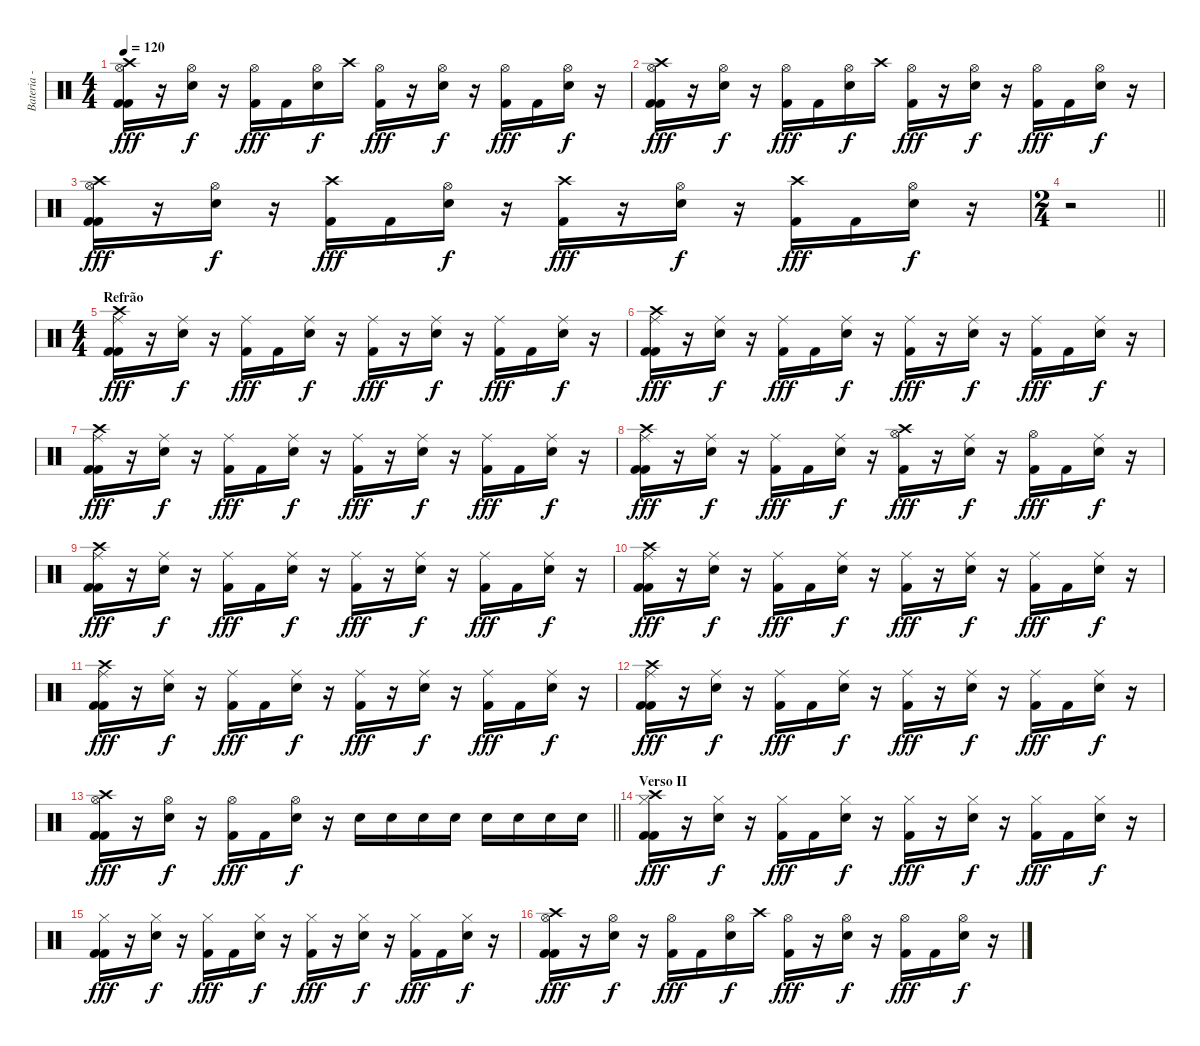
\track ("Bateria - Larzon" "Bateria - ") {instrument percussion}
\staff {score}
\articulation defaults
\ts (4 4)
\tempo 120
\clef neutral
\ks c
("Kick (hit) 2" "Kick (hit) 2" "Crash high (hit)" "Hi-Hat (open)").16{dy fff} r.16 ("Snare (hit) 2" "Hi-Hat (open)").16{dy f} r.16 ("Kick (hit) 2" "Hi-Hat (open)").16{dy fff} "Kick (hit) 2".16 ("Snare (hit) 2" "Hi-Hat (open)").16{dy f} "Crash high (hit)".16 ("Kick (hit) 2" "Hi-Hat (open)").16{dy fff} r.16 ("Snare (hit) 2" "Hi-Hat (open)").16{dy f} r.16 ("Kick (hit) 2" "Hi-Hat (open)").16{dy fff} "Kick (hit) 2".16 ("Snare (hit) 2" "Hi-Hat (open)").16{dy f} r.16 |
("Kick (hit) 2" "Kick (hit) 2" "Crash high (hit)" "Hi-Hat (open)").16{dy fff} r.16 ("Snare (hit) 2" "Hi-Hat (open)").16{dy f} r.16 ("Kick (hit) 2" "Hi-Hat (open)").16{dy fff} "Kick (hit) 2".16 ("Snare (hit) 2" "Hi-Hat (open)").16{dy f} "Crash high (hit)".16 ("Kick (hit) 2" "Hi-Hat (open)").16{dy fff} r.16 ("Snare (hit) 2" "Hi-Hat (open)").16{dy f} r.16 ("Kick (hit) 2" "Hi-Hat (open)").16{dy fff} "Kick (hit) 2".16 ("Snare (hit) 2" "Hi-Hat (open)").16{dy f} r.16 |
("Kick (hit) 2" "Kick (hit) 2" "Crash high (hit)" "Hi-Hat (open)").16{dy fff} r.16 ("Snare (hit) 2" "Hi-Hat (open)").16{dy f} r.16 ("Kick (hit) 2" "Crash high (hit)").16{dy fff} "Kick (hit) 2".16 ("Snare (hit) 2" "Hi-Hat (open)").16{dy f} r.16 ("Kick (hit) 2" "Crash high (hit)").16{dy fff} r.16 ("Snare (hit) 2" "Hi-Hat (open)").16{dy f} r.16 ("Kick (hit) 2" "Crash high (hit)").16{dy fff} "Kick (hit) 2".16 ("Snare (hit) 2" "Hi-Hat (open)").16{dy f} r.16 |
\ts (2 4)
\barLineRight lightlight
r.2 |
\ts (4 4)
\section ("" "Refrão")
("Kick (hit) 2" "Kick (hit) 2" "Crash high (hit)" "Ride (middle)").16{dy fff} r.16 ("Snare (hit) 2" "Ride (middle)").16{dy f} r.16 ("Kick (hit) 2" "Ride (middle)").16{dy fff} "Kick (hit) 2".16 ("Snare (hit) 2" "Ride (middle)").16{dy f} r.16 ("Kick (hit) 2" "Ride (middle)").16{dy fff} r.16 ("Snare (hit) 2" "Ride (middle)").16{dy f} r.16 ("Kick (hit) 2" "Ride (middle)").16{dy fff} "Kick (hit) 2".16 ("Snare (hit) 2" "Ride (middle)").16{dy f} r.16 |
("Kick (hit) 2" "Kick (hit) 2" "Crash high (hit)" "Ride (middle)").16{dy fff} r.16 ("Snare (hit) 2" "Ride (middle)").16{dy f} r.16 ("Kick (hit) 2" "Ride (middle)").16{dy fff} "Kick (hit) 2".16 ("Snare (hit) 2" "Ride (middle)").16{dy f} r.16 ("Kick (hit) 2" "Ride (middle)").16{dy fff} r.16 ("Snare (hit) 2" "Ride (middle)").16{dy f} r.16 ("Kick (hit) 2" "Ride (middle)").16{dy fff} "Kick (hit) 2".16 ("Snare (hit) 2" "Ride (middle)").16{dy f} r.16 |
("Kick (hit) 2" "Kick (hit) 2" "Crash high (hit)" "Ride (middle)").16{dy fff} r.16 ("Snare (hit) 2" "Ride (middle)").16{dy f} r.16 ("Kick (hit) 2" "Ride (middle)").16{dy fff} "Kick (hit) 2".16 ("Snare (hit) 2" "Ride (middle)").16{dy f} r.16 ("Kick (hit) 2" "Ride (middle)").16{dy fff} r.16 ("Snare (hit) 2" "Ride (middle)").16{dy f} r.16 ("Kick (hit) 2" "Ride (middle)").16{dy fff} "Kick (hit) 2".16 ("Snare (hit) 2" "Ride (middle)").16{dy f} r.16 |
("Kick (hit) 2" "Kick (hit) 2" "Crash high (hit)" "Ride (middle)").16{dy fff} r.16 ("Snare (hit) 2" "Ride (middle)").16{dy f} r.16 ("Kick (hit) 2" "Ride (middle)").16{dy fff} "Kick (hit) 2".16 ("Snare (hit) 2" "Ride (middle)").16{dy f} r.16 ("Kick (hit) 2" "Crash high (hit)" "Hi-Hat (open)").16{dy fff} r.16 ("Snare (hit) 2" "Ride (middle)").16{dy f} r.16 ("Kick (hit) 2" "Hi-Hat (open)").16{dy fff} "Kick (hit) 2".16 ("Snare (hit) 2" "Ride (middle)").16{dy f} r.16 |
("Kick (hit) 2" "Kick (hit) 2" "Crash high (hit)" "Ride (middle)").16{dy fff} r.16 ("Snare (hit) 2" "Ride (middle)").16{dy f} r.16 ("Kick (hit) 2" "Ride (middle)").16{dy fff} "Kick (hit) 2".16 ("Snare (hit) 2" "Ride (middle)").16{dy f} r.16 ("Kick (hit) 2" "Ride (middle)").16{dy fff} r.16 ("Snare (hit) 2" "Ride (middle)").16{dy f} r.16 ("Kick (hit) 2" "Ride (middle)").16{dy fff} "Kick (hit) 2".16 ("Snare (hit) 2" "Ride (middle)").16{dy f} r.16 |
("Kick (hit) 2" "Kick (hit) 2" "Crash high (hit)" "Ride (middle)").16{dy fff} r.16 ("Snare (hit) 2" "Ride (middle)").16{dy f} r.16 ("Kick (hit) 2" "Ride (middle)").16{dy fff} "Kick (hit) 2".16 ("Snare (hit) 2" "Ride (middle)").16{dy f} r.16 ("Kick (hit) 2" "Ride (middle)").16{dy fff} r.16 ("Snare (hit) 2" "Ride (middle)").16{dy f} r.16 ("Kick (hit) 2" "Ride (middle)").16{dy fff} "Kick (hit) 2".16 ("Snare (hit) 2" "Ride (middle)").16{dy f} r.16 |
("Kick (hit) 2" "Kick (hit) 2" "Crash high (hit)" "Ride (middle)").16{dy fff} r.16 ("Snare (hit) 2" "Ride (middle)").16{dy f} r.16 ("Kick (hit) 2" "Ride (middle)").16{dy fff} "Kick (hit) 2".16 ("Snare (hit) 2" "Ride (middle)").16{dy f} r.16 ("Kick (hit) 2" "Ride (middle)").16{dy fff} r.16 ("Snare (hit) 2" "Ride (middle)").16{dy f} r.16 ("Kick (hit) 2" "Ride (middle)").16{dy fff} "Kick (hit) 2".16 ("Snare (hit) 2" "Ride (middle)").16{dy f} r.16 |
("Kick (hit) 2" "Kick (hit) 2" "Crash high (hit)" "Ride (middle)").16{dy fff} r.16 ("Snare (hit) 2" "Ride (middle)").16{dy f} r.16 ("Kick (hit) 2" "Ride (middle)").16{dy fff} "Kick (hit) 2".16 ("Snare (hit) 2" "Ride (middle)").16{dy f} r.16 ("Kick (hit) 2" "Ride (middle)").16{dy fff} r.16 ("Snare (hit) 2" "Ride (middle)").16{dy f} r.16 ("Kick (hit) 2" "Ride (middle)").16{dy fff} "Kick (hit) 2".16 ("Snare (hit) 2" "Ride (middle)").16{dy f} r.16 |
\barLineRight lightlight
("Kick (hit) 2" "Kick (hit) 2" "Crash high (hit)" "Hi-Hat (open)").16{dy fff} r.16 ("Snare (hit) 2" "Hi-Hat (open)").16{dy f} r.16 ("Kick (hit) 2" "Hi-Hat (open)").16{dy fff} "Kick (hit) 2".16 ("Snare (hit) 2" "Hi-Hat (open)").16{dy f} r.16 "Snare (hit) 2".16 "Snare (hit) 2".16 "Snare (hit) 2".16 "Snare (hit) 2".16 "Snare (hit) 2".16 "Snare (hit) 2".16 "Snare (hit) 2".16 "Snare (hit) 2".16 |
\section ("" "Verso II")
("Kick (hit) 2" "Kick (hit) 2" "Crash high (hit)" "Hi-Hat (closed)").16{dy fff} r.16 ("Snare (hit) 2" "Hi-Hat (closed)").16{dy f} r.16 ("Kick (hit) 2" "Hi-Hat (closed)").16{dy fff} "Kick (hit) 2".16 ("Snare (hit) 2" "Hi-Hat (closed)").16{dy f} r.16 ("Kick (hit) 2" "Hi-Hat (closed)").16{dy fff} r.16 ("Snare (hit) 2" "Hi-Hat (closed)").16{dy f} r.16 ("Kick (hit) 2" "Hi-Hat (closed)").16{dy fff} "Kick (hit) 2".16 ("Snare (hit) 2" "Hi-Hat (closed)").16{dy f} r.16 |
("Kick (hit) 2" "Kick (hit) 2" "Hi-Hat (closed)").16{dy fff} r.16 ("Snare (hit) 2" "Hi-Hat (closed)").16{dy f} r.16 ("Kick (hit) 2" "Hi-Hat (closed)").16{dy fff} "Kick (hit) 2".16 ("Snare (hit) 2" "Hi-Hat (closed)").16{dy f} r.16 ("Kick (hit) 2" "Hi-Hat (closed)").16{dy fff} r.16 ("Snare (hit) 2" "Hi-Hat (closed)").16{dy f} r.16 ("Kick (hit) 2" "Hi-Hat (closed)").16{dy fff} "Kick (hit) 2".16 ("Snare (hit) 2" "Hi-Hat (closed)").16{dy f} r.16 |
("Kick (hit) 2" "Kick (hit) 2" "Crash high (hit)" "Hi-Hat (open)").16{dy fff} r.16 ("Snare (hit) 2" "Hi-Hat (open)").16{dy f} r.16 ("Kick (hit) 2" "Hi-Hat (open)").16{dy fff} "Kick (hit) 2".16 ("Snare (hit) 2" "Hi-Hat (open)").16{dy f} "Crash high (hit)".16 ("Kick (hit) 2" "Hi-Hat (open)").16{dy fff} r.16 ("Snare (hit) 2" "Hi-Hat (open)").16{dy f} r.16 ("Kick (hit) 2" "Hi-Hat (open)").16{dy fff} "Kick (hit) 2".16 ("Snare (hit) 2" "Hi-Hat (open)").16{dy f} r.16
